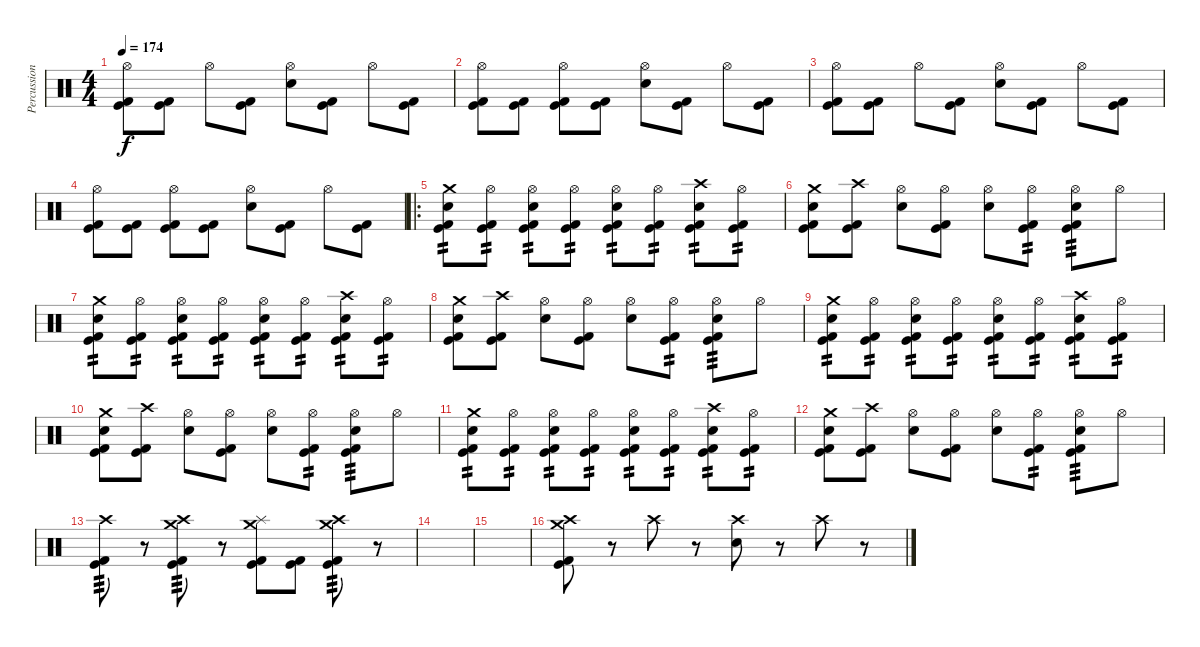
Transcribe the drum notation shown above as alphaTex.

\track ("Percussion" "Percussion") {instrument percussion}
\staff {score}
\articulation defaults
\ts (4 4)
\tempo 174
\clef neutral
\ks c
("Hi-Hat (open)" "Kick (hit) 2" "Kick (hit)").8{dy f} ("Kick (hit) 2" "Kick (hit)").8 "Hi-Hat (open)".8 ("Kick (hit) 2" "Kick (hit)").8 ("Hi-Hat (open)" "Electric Snare (hit)").8 ("Kick (hit) 2" "Kick (hit)").8 "Hi-Hat (open)".8 ("Kick (hit) 2" "Kick (hit)").8 |
("Hi-Hat (open)" "Kick (hit) 2" "Kick (hit)").8 ("Kick (hit) 2" "Kick (hit)").8 ("Hi-Hat (open)" "Kick (hit) 2" "Kick (hit)").8 ("Kick (hit) 2" "Kick (hit)").8 ("Hi-Hat (open)" "Electric Snare (hit)").8 ("Kick (hit) 2" "Kick (hit)").8 "Hi-Hat (open)".8 ("Kick (hit) 2" "Kick (hit)").8 |
("Hi-Hat (open)" "Kick (hit) 2" "Kick (hit)").8 ("Kick (hit) 2" "Kick (hit)").8 "Hi-Hat (open)".8 ("Kick (hit) 2" "Kick (hit)").8 ("Hi-Hat (open)" "Electric Snare (hit)").8 ("Kick (hit) 2" "Kick (hit)").8 "Hi-Hat (open)".8 ("Kick (hit) 2" "Kick (hit)").8 |
("Hi-Hat (open)" "Kick (hit) 2" "Kick (hit)").8 ("Kick (hit) 2" "Kick (hit)").8 ("Hi-Hat (open)" "Kick (hit) 2" "Kick (hit)").8 ("Kick (hit) 2" "Kick (hit)").8 ("Hi-Hat (open)" "Electric Snare (hit)").8 ("Kick (hit) 2" "Kick (hit)").8 "Hi-Hat (open)".8 ("Kick (hit) 2" "Kick (hit)").8 |
\ro
("Crash medium (hit)" "Electric Snare (hit)" "Kick (hit) 2" "Kick (hit)").8{tp 2} ("Hi-Hat (open)" "Kick (hit) 2" "Kick (hit)").8{tp 2} ("Hi-Hat (open)" "Electric Snare (hit)" "Kick (hit) 2" "Kick (hit)").8{tp 2} ("Hi-Hat (open)" "Kick (hit) 2" "Kick (hit)").8{tp 2} ("Hi-Hat (open)" "Electric Snare (hit)" "Kick (hit) 2" "Kick (hit)").8{tp 2} ("Hi-Hat (open)" "Kick (hit) 2" "Kick (hit)").8{tp 2} ("Crash high (hit)" "Electric Snare (hit)" "Kick (hit) 2" "Kick (hit)").8{tp 2} ("Hi-Hat (open)" "Kick (hit) 2" "Kick (hit)").8{tp 2} |
("Crash medium (hit)" "Electric Snare (hit)" "Kick (hit) 2" "Kick (hit)").8 ("Crash high (hit)" "Kick (hit) 2" "Kick (hit)").8 ("Hi-Hat (open)" "Electric Snare (hit)").8 ("Hi-Hat (open)" "Kick (hit) 2" "Kick (hit)").8 ("Hi-Hat (open)" "Electric Snare (hit)").8 ("Hi-Hat (open)" "Kick (hit) 2" "Kick (hit)").8{tp 2} ("Hi-Hat (open)" "Electric Snare (hit)" "Kick (hit) 2" "Kick (hit)").8{tp 3} "Hi-Hat (open)".8 |
("Crash medium (hit)" "Electric Snare (hit)" "Kick (hit) 2" "Kick (hit)").8{tp 2} ("Hi-Hat (open)" "Kick (hit) 2" "Kick (hit)").8{tp 2} ("Hi-Hat (open)" "Electric Snare (hit)" "Kick (hit) 2" "Kick (hit)").8{tp 2} ("Hi-Hat (open)" "Kick (hit) 2" "Kick (hit)").8{tp 2} ("Hi-Hat (open)" "Electric Snare (hit)" "Kick (hit) 2" "Kick (hit)").8{tp 2} ("Hi-Hat (open)" "Kick (hit) 2" "Kick (hit)").8{tp 2} ("Crash high (hit)" "Electric Snare (hit)" "Kick (hit) 2" "Kick (hit)").8{tp 2} ("Hi-Hat (open)" "Kick (hit) 2" "Kick (hit)").8{tp 2} |
("Crash medium (hit)" "Electric Snare (hit)" "Kick (hit) 2" "Kick (hit)").8 ("Crash high (hit)" "Kick (hit) 2" "Kick (hit)").8 ("Hi-Hat (open)" "Electric Snare (hit)").8 ("Hi-Hat (open)" "Kick (hit) 2" "Kick (hit)").8 ("Hi-Hat (open)" "Electric Snare (hit)").8 ("Hi-Hat (open)" "Kick (hit) 2" "Kick (hit)").8{tp 2} ("Hi-Hat (open)" "Electric Snare (hit)" "Kick (hit) 2" "Kick (hit)").8{tp 3} "Hi-Hat (open)".8 |
("Crash medium (hit)" "Electric Snare (hit)" "Kick (hit) 2" "Kick (hit)").8{tp 2} ("Hi-Hat (open)" "Kick (hit) 2" "Kick (hit)").8{tp 2} ("Hi-Hat (open)" "Electric Snare (hit)" "Kick (hit) 2" "Kick (hit)").8{tp 2} ("Hi-Hat (open)" "Kick (hit) 2" "Kick (hit)").8{tp 2} ("Hi-Hat (open)" "Electric Snare (hit)" "Kick (hit) 2" "Kick (hit)").8{tp 2} ("Hi-Hat (open)" "Kick (hit) 2" "Kick (hit)").8{tp 2} ("Crash high (hit)" "Electric Snare (hit)" "Kick (hit) 2" "Kick (hit)").8{tp 2} ("Hi-Hat (open)" "Kick (hit) 2" "Kick (hit)").8{tp 2} |
("Crash medium (hit)" "Electric Snare (hit)" "Kick (hit) 2" "Kick (hit)").8 ("Crash high (hit)" "Kick (hit) 2" "Kick (hit)").8 ("Hi-Hat (open)" "Electric Snare (hit)").8 ("Hi-Hat (open)" "Kick (hit) 2" "Kick (hit)").8 ("Hi-Hat (open)" "Electric Snare (hit)").8 ("Hi-Hat (open)" "Kick (hit) 2" "Kick (hit)").8{tp 2} ("Hi-Hat (open)" "Electric Snare (hit)" "Kick (hit) 2" "Kick (hit)").8{tp 3} "Hi-Hat (open)".8 |
("Crash medium (hit)" "Electric Snare (hit)" "Kick (hit) 2" "Kick (hit)").8{tp 2} ("Hi-Hat (open)" "Kick (hit) 2" "Kick (hit)").8{tp 2} ("Hi-Hat (open)" "Electric Snare (hit)" "Kick (hit) 2" "Kick (hit)").8{tp 2} ("Hi-Hat (open)" "Kick (hit) 2" "Kick (hit)").8{tp 2} ("Hi-Hat (open)" "Electric Snare (hit)" "Kick (hit) 2" "Kick (hit)").8{tp 2} ("Hi-Hat (open)" "Kick (hit) 2" "Kick (hit)").8{tp 2} ("Crash high (hit)" "Electric Snare (hit)" "Kick (hit) 2" "Kick (hit)").8{tp 2} ("Hi-Hat (open)" "Kick (hit) 2" "Kick (hit)").8{tp 2} |
("Crash medium (hit)" "Electric Snare (hit)" "Kick (hit) 2" "Kick (hit)").8 ("Crash high (hit)" "Kick (hit) 2" "Kick (hit)").8 ("Hi-Hat (open)" "Electric Snare (hit)").8 ("Hi-Hat (open)" "Kick (hit) 2" "Kick (hit)").8 ("Hi-Hat (open)" "Electric Snare (hit)").8 ("Hi-Hat (open)" "Kick (hit) 2" "Kick (hit)").8{tp 2} ("Hi-Hat (open)" "Electric Snare (hit)" "Kick (hit) 2" "Kick (hit)").8{tp 3} "Hi-Hat (open)".8 |
("Crash high (hit)" "Kick (hit) 2" "Kick (hit)").8{tp 3} r.8 ("Crash medium (hit)" "Crash high (hit)" "Kick (hit) 2" "Kick (hit)").8{tp 3} r.8 ("Crash medium (hit)" "Splash (hit)" "Kick (hit) 2" "Kick (hit)").8 ("Kick (hit) 2" "Kick (hit)").8 ("Crash high (hit)" "Crash medium (hit)" "Kick (hit) 2" "Kick (hit)").8{tp 3} r.8 |
|
|
("Crash high (hit)" "Crash medium (hit)" "Kick (hit) 2" "Kick (hit)").8 r.8 "Crash high (hit)".8 r.8 ("Crash high (hit)" "Electric Snare (hit)").8 r.8 "Crash high (hit)".8 r.8
